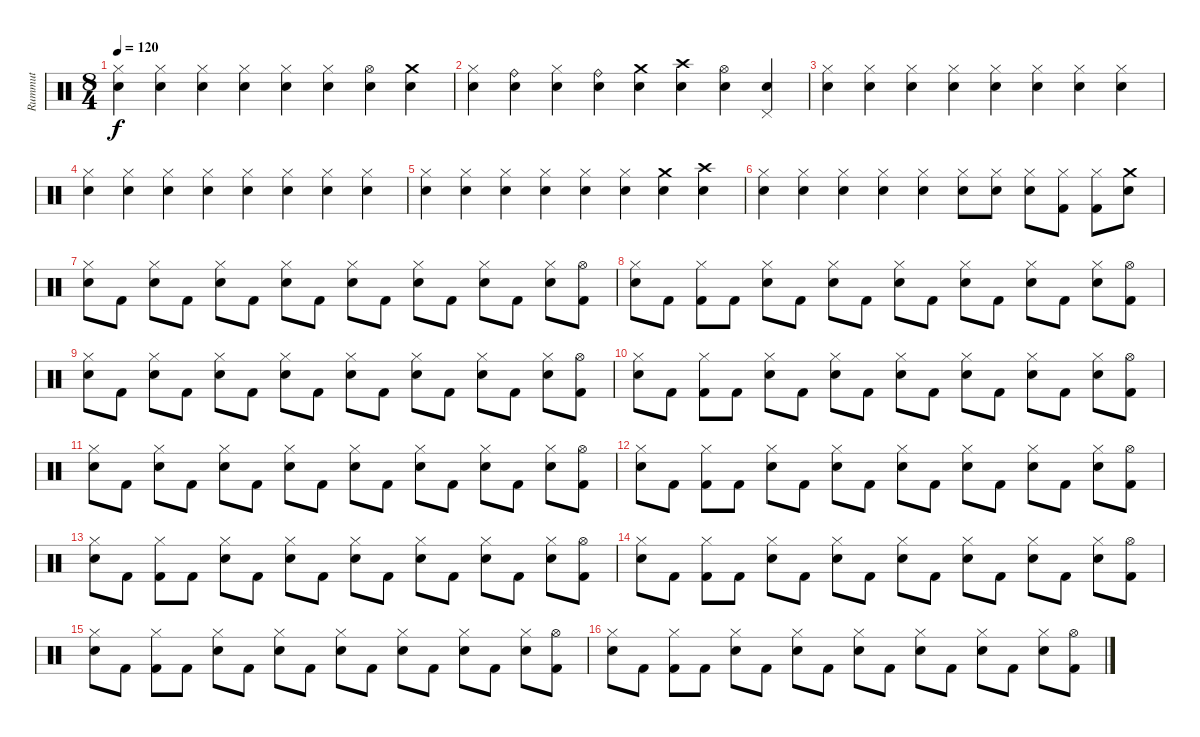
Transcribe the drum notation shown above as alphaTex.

\track ("Rummut" "Rummut") {instrument percussion}
\staff {score}
\articulation defaults
\ts (8 4)
\tempo 120
\clef neutral
\ks c
("Hi-Hat (closed)" "Snare (hit) 2").4{dy f} ("Hi-Hat (closed)" "Snare (hit) 2").4 ("Hi-Hat (closed)" "Snare (hit) 2").4 ("Hi-Hat (closed)" "Snare (hit) 2").4 ("Hi-Hat (closed)" "Snare (hit) 2").4 ("Hi-Hat (closed)" "Snare (hit) 2").4 ("Hi-Hat (open)" "Snare (hit) 2").4 ("Crash medium (hit)" "Snare (hit) 2").4 |
("Hi-Hat (closed)" "Snare (hit) 2").4 ("Ride (bell)" "Snare (hit) 2").4 ("Hi-Hat (closed)" "Snare (hit) 2").4 ("Ride (bell)" "Snare (hit) 2").4 ("Crash medium (hit)" "Snare (hit) 2").4 ("Crash high (hit)" "Snare (hit) 2").4 ("Hi-Hat (open)" "Snare (hit) 2").4 ("Pedal Hi-Hat (hit)" "Snare (hit) 2").4 |
("Hi-Hat (closed)" "Snare (hit) 2").4 ("Hi-Hat (closed)" "Snare (hit) 2").4 ("Hi-Hat (closed)" "Snare (hit) 2").4 ("Hi-Hat (closed)" "Snare (hit) 2").4 ("Hi-Hat (closed)" "Snare (hit) 2").4 ("Hi-Hat (closed)" "Snare (hit) 2").4 ("Hi-Hat (closed)" "Snare (hit) 2").4 ("Hi-Hat (closed)" "Snare (hit) 2").4 |
("Hi-Hat (closed)" "Snare (hit) 2").4 ("Hi-Hat (closed)" "Snare (hit) 2").4 ("Hi-Hat (closed)" "Snare (hit) 2").4 ("Hi-Hat (closed)" "Snare (hit) 2").4 ("Hi-Hat (closed)" "Snare (hit) 2").4 ("Hi-Hat (closed)" "Snare (hit) 2").4 ("Hi-Hat (closed)" "Snare (hit) 2").4 ("Hi-Hat (closed)" "Snare (hit) 2").4 |
("Hi-Hat (closed)" "Snare (hit) 2").4 ("Hi-Hat (closed)" "Snare (hit) 2").4 ("Hi-Hat (closed)" "Snare (hit) 2").4 ("Hi-Hat (closed)" "Snare (hit) 2").4 ("Hi-Hat (closed)" "Snare (hit) 2").4 ("Hi-Hat (closed)" "Snare (hit) 2").4 ("Crash medium (hit)" "Snare (hit) 2").4 ("Crash high (hit)" "Snare (hit) 2").4 |
("Hi-Hat (closed)" "Snare (hit) 2").4 ("Hi-Hat (closed)" "Snare (hit) 2").4 ("Hi-Hat (closed)" "Snare (hit) 2").4 ("Hi-Hat (closed)" "Snare (hit) 2").4 ("Hi-Hat (closed)" "Snare (hit) 2").4 ("Hi-Hat (closed)" "Snare (hit) 2").8 ("Hi-Hat (closed)" "Snare (hit) 2").8 ("Hi-Hat (closed)" "Snare (hit) 2").8 ("Hi-Hat (closed)" "Kick (hit) 2").8 ("Hi-Hat (closed)" "Kick (hit) 2").8 ("Crash medium (hit)" "Snare (hit) 2").8 |
("Hi-Hat (closed)" "Snare (hit) 2").8 "Kick (hit) 2".8 ("Hi-Hat (closed)" "Snare (hit) 2").8 "Kick (hit) 2".8 ("Hi-Hat (closed)" "Snare (hit) 2").8 "Kick (hit) 2".8 ("Hi-Hat (closed)" "Snare (hit) 2").8 "Kick (hit) 2".8 ("Hi-Hat (closed)" "Snare (hit) 2").8 "Kick (hit) 2".8 ("Hi-Hat (closed)" "Snare (hit) 2").8 "Kick (hit) 2".8 ("Hi-Hat (closed)" "Snare (hit) 2").8 "Kick (hit) 2".8 ("Hi-Hat (closed)" "Snare (hit) 2").8 ("Hi-Hat (open)" "Kick (hit) 2").8 |
("Hi-Hat (closed)" "Snare (hit) 2").8 "Kick (hit) 2".8 ("Hi-Hat (closed)" "Kick (hit) 2").8 "Kick (hit) 2".8 ("Hi-Hat (closed)" "Snare (hit) 2").8 "Kick (hit) 2".8 ("Hi-Hat (closed)" "Snare (hit) 2").8 "Kick (hit) 2".8 ("Hi-Hat (closed)" "Snare (hit) 2").8 "Kick (hit) 2".8 ("Hi-Hat (closed)" "Snare (hit) 2").8 "Kick (hit) 2".8 ("Hi-Hat (closed)" "Snare (hit) 2").8 "Kick (hit) 2".8 ("Hi-Hat (closed)" "Snare (hit) 2").8 ("Hi-Hat (open)" "Kick (hit) 2").8 |
("Hi-Hat (closed)" "Snare (hit) 2").8 "Kick (hit) 2".8 ("Hi-Hat (closed)" "Snare (hit) 2").8 "Kick (hit) 2".8 ("Hi-Hat (closed)" "Snare (hit) 2").8 "Kick (hit) 2".8 ("Hi-Hat (closed)" "Snare (hit) 2").8 "Kick (hit) 2".8 ("Hi-Hat (closed)" "Snare (hit) 2").8 "Kick (hit) 2".8 ("Hi-Hat (closed)" "Snare (hit) 2").8 "Kick (hit) 2".8 ("Hi-Hat (closed)" "Snare (hit) 2").8 "Kick (hit) 2".8 ("Hi-Hat (closed)" "Snare (hit) 2").8 ("Hi-Hat (open)" "Kick (hit) 2").8 |
("Hi-Hat (closed)" "Snare (hit) 2").8 "Kick (hit) 2".8 ("Hi-Hat (closed)" "Kick (hit) 2").8 "Kick (hit) 2".8 ("Hi-Hat (closed)" "Snare (hit) 2").8 "Kick (hit) 2".8 ("Hi-Hat (closed)" "Snare (hit) 2").8 "Kick (hit) 2".8 ("Hi-Hat (closed)" "Snare (hit) 2").8 "Kick (hit) 2".8 ("Hi-Hat (closed)" "Snare (hit) 2").8 "Kick (hit) 2".8 ("Hi-Hat (closed)" "Snare (hit) 2").8 "Kick (hit) 2".8 ("Hi-Hat (closed)" "Snare (hit) 2").8 ("Hi-Hat (open)" "Kick (hit) 2").8 |
("Hi-Hat (closed)" "Snare (hit) 2").8 "Kick (hit) 2".8 ("Hi-Hat (closed)" "Snare (hit) 2").8 "Kick (hit) 2".8 ("Hi-Hat (closed)" "Snare (hit) 2").8 "Kick (hit) 2".8 ("Hi-Hat (closed)" "Snare (hit) 2").8 "Kick (hit) 2".8 ("Hi-Hat (closed)" "Snare (hit) 2").8 "Kick (hit) 2".8 ("Hi-Hat (closed)" "Snare (hit) 2").8 "Kick (hit) 2".8 ("Hi-Hat (closed)" "Snare (hit) 2").8 "Kick (hit) 2".8 ("Hi-Hat (closed)" "Snare (hit) 2").8 ("Hi-Hat (open)" "Kick (hit) 2").8 |
("Hi-Hat (closed)" "Snare (hit) 2").8 "Kick (hit) 2".8 ("Hi-Hat (closed)" "Kick (hit) 2").8 "Kick (hit) 2".8 ("Hi-Hat (closed)" "Snare (hit) 2").8 "Kick (hit) 2".8 ("Hi-Hat (closed)" "Snare (hit) 2").8 "Kick (hit) 2".8 ("Hi-Hat (closed)" "Snare (hit) 2").8 "Kick (hit) 2".8 ("Hi-Hat (closed)" "Snare (hit) 2").8 "Kick (hit) 2".8 ("Hi-Hat (closed)" "Snare (hit) 2").8 "Kick (hit) 2".8 ("Hi-Hat (closed)" "Snare (hit) 2").8 ("Hi-Hat (open)" "Kick (hit) 2").8 |
("Hi-Hat (closed)" "Snare (hit) 2").8 "Kick (hit) 2".8 ("Hi-Hat (closed)" "Kick (hit) 2").8 "Kick (hit) 2".8 ("Hi-Hat (closed)" "Snare (hit) 2").8 "Kick (hit) 2".8 ("Hi-Hat (closed)" "Snare (hit) 2").8 "Kick (hit) 2".8 ("Hi-Hat (closed)" "Snare (hit) 2").8 "Kick (hit) 2".8 ("Hi-Hat (closed)" "Snare (hit) 2").8 "Kick (hit) 2".8 ("Hi-Hat (closed)" "Snare (hit) 2").8 "Kick (hit) 2".8 ("Hi-Hat (closed)" "Snare (hit) 2").8 ("Hi-Hat (open)" "Kick (hit) 2").8 |
("Hi-Hat (closed)" "Snare (hit) 2").8 "Kick (hit) 2".8 ("Hi-Hat (closed)" "Kick (hit) 2").8 "Kick (hit) 2".8 ("Hi-Hat (closed)" "Snare (hit) 2").8 "Kick (hit) 2".8 ("Hi-Hat (closed)" "Snare (hit) 2").8 "Kick (hit) 2".8 ("Hi-Hat (closed)" "Snare (hit) 2").8 "Kick (hit) 2".8 ("Hi-Hat (closed)" "Snare (hit) 2").8 "Kick (hit) 2".8 ("Hi-Hat (closed)" "Snare (hit) 2").8 "Kick (hit) 2".8 ("Hi-Hat (closed)" "Snare (hit) 2").8 ("Hi-Hat (open)" "Kick (hit) 2").8 |
("Hi-Hat (closed)" "Snare (hit) 2").8 "Kick (hit) 2".8 ("Hi-Hat (closed)" "Kick (hit) 2").8 "Kick (hit) 2".8 ("Hi-Hat (closed)" "Snare (hit) 2").8 "Kick (hit) 2".8 ("Hi-Hat (closed)" "Snare (hit) 2").8 "Kick (hit) 2".8 ("Hi-Hat (closed)" "Snare (hit) 2").8 "Kick (hit) 2".8 ("Hi-Hat (closed)" "Snare (hit) 2").8 "Kick (hit) 2".8 ("Hi-Hat (closed)" "Snare (hit) 2").8 "Kick (hit) 2".8 ("Hi-Hat (closed)" "Snare (hit) 2").8 ("Hi-Hat (open)" "Kick (hit) 2").8 |
("Hi-Hat (closed)" "Snare (hit) 2").8 "Kick (hit) 2".8 ("Hi-Hat (closed)" "Kick (hit) 2").8 "Kick (hit) 2".8 ("Hi-Hat (closed)" "Snare (hit) 2").8 "Kick (hit) 2".8 ("Hi-Hat (closed)" "Snare (hit) 2").8 "Kick (hit) 2".8 ("Hi-Hat (closed)" "Snare (hit) 2").8 "Kick (hit) 2".8 ("Hi-Hat (closed)" "Snare (hit) 2").8 "Kick (hit) 2".8 ("Hi-Hat (closed)" "Snare (hit) 2").8 "Kick (hit) 2".8 ("Hi-Hat (closed)" "Snare (hit) 2").8 ("Hi-Hat (open)" "Kick (hit) 2").8
